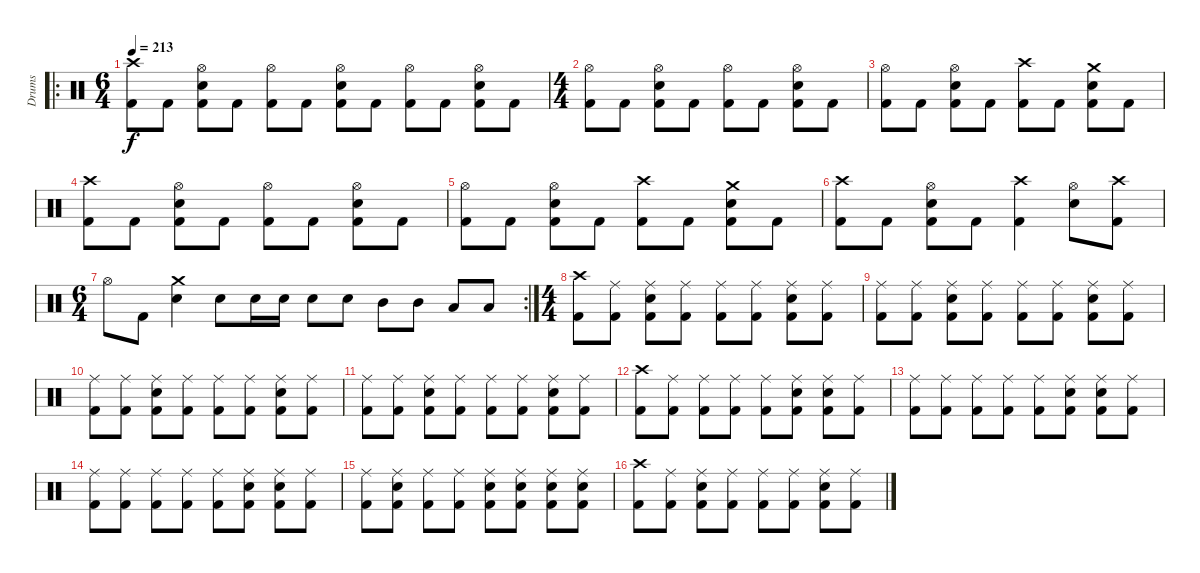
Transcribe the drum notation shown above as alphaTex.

\track ("Drums" "Drums") {instrument percussion}
\staff {score}
\articulation defaults
\ro
\ts (6 4)
\tempo 213
\clef neutral
\ks c
("Kick (hit) 2" "Crash high (hit)").8{dy f} "Kick (hit) 2".8 ("Kick (hit) 2" "Snare (hit) 2" "Hi-Hat (open)").8 "Kick (hit) 2".8 ("Kick (hit) 2" "Hi-Hat (open)").8 "Kick (hit) 2".8 ("Kick (hit) 2" "Snare (hit) 2" "Hi-Hat (open)").8 "Kick (hit) 2".8 ("Kick (hit) 2" "Hi-Hat (open)").8 "Kick (hit) 2".8 ("Kick (hit) 2" "Snare (hit) 2" "Hi-Hat (open)").8 "Kick (hit) 2".8 |
\ts (4 4)
("Kick (hit) 2" "Hi-Hat (open)").8 "Kick (hit) 2".8 ("Kick (hit) 2" "Snare (hit) 2" "Hi-Hat (open)").8 "Kick (hit) 2".8 ("Kick (hit) 2" "Hi-Hat (open)").8 "Kick (hit) 2".8 ("Kick (hit) 2" "Snare (hit) 2" "Hi-Hat (open)").8 "Kick (hit) 2".8 |
("Kick (hit) 2" "Hi-Hat (open)").8 "Kick (hit) 2".8 ("Kick (hit) 2" "Snare (hit) 2" "Hi-Hat (open)").8 "Kick (hit) 2".8 ("Kick (hit) 2" "Crash high (hit)").8 "Kick (hit) 2".8 ("Kick (hit) 2" "Snare (hit) 2" "Crash medium (hit)").8 "Kick (hit) 2".8 |
("Kick (hit) 2" "Crash high (hit)").8 "Kick (hit) 2".8 ("Kick (hit) 2" "Snare (hit) 2" "Hi-Hat (open)").8 "Kick (hit) 2".8 ("Kick (hit) 2" "Hi-Hat (open)").8 "Kick (hit) 2".8 ("Kick (hit) 2" "Snare (hit) 2" "Hi-Hat (open)").8 "Kick (hit) 2".8 |
("Kick (hit) 2" "Hi-Hat (open)").8 "Kick (hit) 2".8 ("Kick (hit) 2" "Snare (hit) 2" "Hi-Hat (open)").8 "Kick (hit) 2".8 ("Kick (hit) 2" "Crash high (hit)").8 "Kick (hit) 2".8 ("Kick (hit) 2" "Snare (hit) 2" "Crash medium (hit)").8 "Kick (hit) 2".8 |
("Kick (hit) 2" "Crash high (hit)").8 "Kick (hit) 2".8 ("Kick (hit) 2" "Snare (hit) 2" "Hi-Hat (open)").8 "Kick (hit) 2".8 ("Kick (hit) 2" "Crash high (hit)").4 ("Snare (hit) 2" "Hi-Hat (open)").8 ("Kick (hit) 2" "Crash high (hit)").8 |
\rc 2
\ts (6 4)
"Hi-Hat (open)".8 "Kick (hit) 2".8 ("Snare (hit) 2" "Crash medium (hit)").4 "Snare (hit) 2".8 "Snare (hit) 2".16 "Snare (hit) 2".16 "Snare (hit) 2".8 "Snare (hit) 2".8 "Mid Tom (hit)".8 "Mid Tom (hit)".8 "Low Tom (hit)".8 "Low Tom (hit)".8 |
\ts (4 4)
("Kick (hit) 2" "Crash high (hit)").8 ("Kick (hit) 2" "Ride (middle)").8 ("Kick (hit) 2" "Snare (hit) 2" "Ride (middle)").8 ("Kick (hit) 2" "Ride (middle)").8 ("Kick (hit) 2" "Ride (middle)").8 ("Kick (hit) 2" "Ride (middle)").8 ("Kick (hit) 2" "Snare (hit) 2" "Ride (middle)").8 ("Kick (hit) 2" "Ride (middle)").8 |
("Kick (hit) 2" "Ride (middle)").8 ("Kick (hit) 2" "Ride (middle)").8 ("Kick (hit) 2" "Snare (hit) 2" "Ride (middle)").8 ("Kick (hit) 2" "Ride (middle)").8 ("Kick (hit) 2" "Ride (middle)").8 ("Kick (hit) 2" "Ride (middle)").8 ("Kick (hit) 2" "Snare (hit) 2" "Ride (middle)").8 ("Kick (hit) 2" "Ride (middle)").8 |
("Kick (hit) 2" "Ride (middle)").8 ("Kick (hit) 2" "Ride (middle)").8 ("Kick (hit) 2" "Snare (hit) 2" "Ride (middle)").8 ("Kick (hit) 2" "Ride (middle)").8 ("Kick (hit) 2" "Ride (middle)").8 ("Kick (hit) 2" "Ride (middle)").8 ("Kick (hit) 2" "Snare (hit) 2" "Ride (middle)").8 ("Kick (hit) 2" "Ride (middle)").8 |
("Kick (hit) 2" "Ride (middle)").8 ("Kick (hit) 2" "Ride (middle)").8 ("Kick (hit) 2" "Snare (hit) 2" "Ride (middle)").8 ("Kick (hit) 2" "Ride (middle)").8 ("Kick (hit) 2" "Ride (middle)").8 ("Kick (hit) 2" "Ride (middle)").8 ("Kick (hit) 2" "Snare (hit) 2" "Ride (middle)").8 ("Kick (hit) 2" "Ride (middle)").8 |
("Kick (hit) 2" "Crash high (hit)").8 ("Kick (hit) 2" "Ride (middle)").8 ("Kick (hit) 2" "Ride (middle)").8 ("Kick (hit) 2" "Ride (middle)").8 ("Kick (hit) 2" "Ride (middle)").8 ("Kick (hit) 2" "Snare (hit) 2" "Ride (middle)").8 ("Kick (hit) 2" "Snare (hit) 2" "Ride (middle)").8 ("Kick (hit) 2" "Ride (middle)").8 |
("Kick (hit) 2" "Ride (middle)").8 ("Kick (hit) 2" "Ride (middle)").8 ("Kick (hit) 2" "Ride (middle)").8 ("Kick (hit) 2" "Ride (middle)").8 ("Kick (hit) 2" "Ride (middle)").8 ("Kick (hit) 2" "Snare (hit) 2" "Ride (middle)").8 ("Kick (hit) 2" "Snare (hit) 2" "Ride (middle)").8 ("Kick (hit) 2" "Ride (middle)").8 |
("Kick (hit) 2" "Ride (middle)").8 ("Kick (hit) 2" "Ride (middle)").8 ("Kick (hit) 2" "Ride (middle)").8 ("Kick (hit) 2" "Ride (middle)").8 ("Kick (hit) 2" "Ride (middle)").8 ("Kick (hit) 2" "Snare (hit) 2" "Ride (middle)").8 ("Kick (hit) 2" "Snare (hit) 2" "Ride (middle)").8 ("Kick (hit) 2" "Ride (middle)").8 |
("Kick (hit) 2" "Ride (middle)").8 ("Kick (hit) 2" "Snare (hit) 2" "Ride (middle)").8 ("Kick (hit) 2" "Ride (middle)").8 ("Kick (hit) 2" "Ride (middle)").8 ("Kick (hit) 2" "Snare (hit) 2" "Ride (middle)").8 ("Kick (hit) 2" "Snare (hit) 2" "Ride (middle)").8 ("Kick (hit) 2" "Snare (hit) 2" "Ride (middle)").8 ("Kick (hit) 2" "Snare (hit) 2" "Ride (middle)").8 |
("Kick (hit) 2" "Crash high (hit)").8 ("Kick (hit) 2" "Ride (middle)").8 ("Kick (hit) 2" "Snare (hit) 2" "Ride (middle)").8 ("Kick (hit) 2" "Ride (middle)").8 ("Kick (hit) 2" "Ride (middle)").8 ("Kick (hit) 2" "Ride (middle)").8 ("Kick (hit) 2" "Snare (hit) 2" "Ride (middle)").8 ("Kick (hit) 2" "Ride (middle)").8
